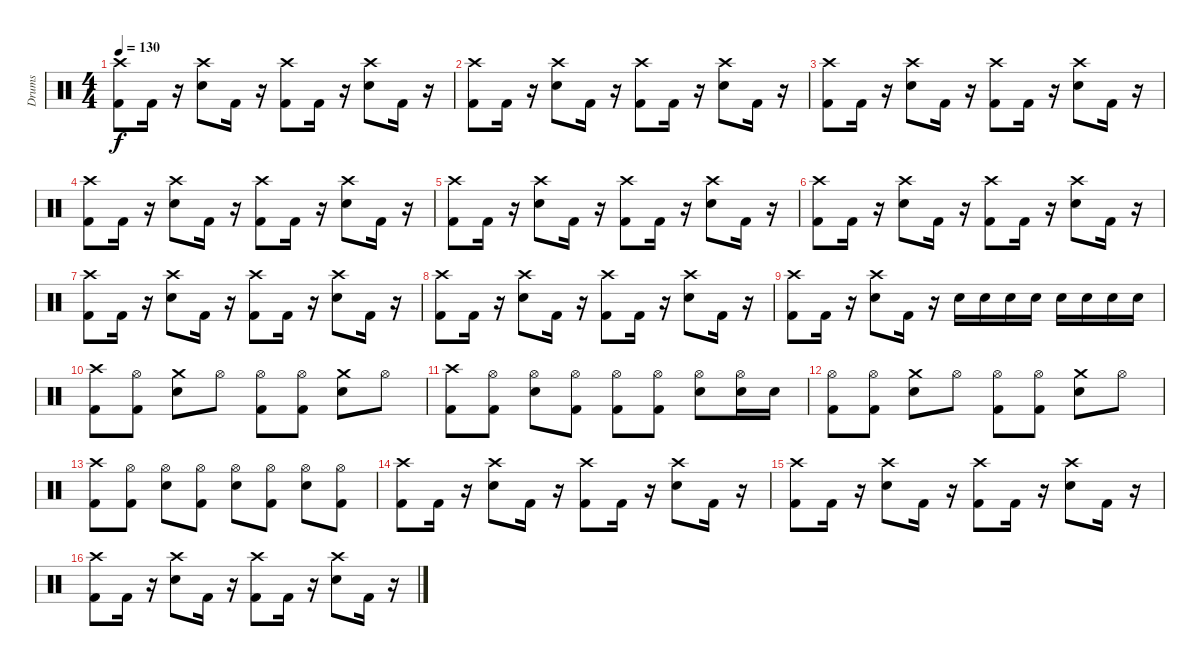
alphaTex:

\track ("Drums" "Drums") {instrument percussion}
\staff {score}
\articulation defaults
\ts (4 4)
\tempo 130
\clef neutral
\ks c
("Kick (hit) 2" "Crash high (hit)").8{dy f} "Kick (hit) 2".16 r.16 ("Electric Snare (hit)" "Crash high (hit)").8 "Kick (hit) 2".16 r.16 ("Kick (hit) 2" "Crash high (hit)").8 "Kick (hit) 2".16 r.16 ("Electric Snare (hit)" "Crash high (hit)").8 "Kick (hit) 2".16 r.16 |
("Kick (hit) 2" "Crash high (hit)").8 "Kick (hit) 2".16 r.16 ("Electric Snare (hit)" "Crash high (hit)").8 "Kick (hit) 2".16 r.16 ("Kick (hit) 2" "Crash high (hit)").8 "Kick (hit) 2".16 r.16 ("Electric Snare (hit)" "Crash high (hit)").8 "Kick (hit) 2".16 r.16 |
("Kick (hit) 2" "Crash high (hit)").8 "Kick (hit) 2".16 r.16 ("Electric Snare (hit)" "Crash high (hit)").8 "Kick (hit) 2".16 r.16 ("Kick (hit) 2" "Crash high (hit)").8 "Kick (hit) 2".16 r.16 ("Electric Snare (hit)" "Crash high (hit)").8 "Kick (hit) 2".16 r.16 |
("Kick (hit) 2" "Crash high (hit)").8 "Kick (hit) 2".16 r.16 ("Electric Snare (hit)" "Crash high (hit)").8 "Kick (hit) 2".16 r.16 ("Kick (hit) 2" "Crash high (hit)").8 "Kick (hit) 2".16 r.16 ("Electric Snare (hit)" "Crash high (hit)").8 "Kick (hit) 2".16 r.16 |
("Kick (hit) 2" "Crash high (hit)").8 "Kick (hit) 2".16 r.16 ("Electric Snare (hit)" "Crash high (hit)").8 "Kick (hit) 2".16 r.16 ("Kick (hit) 2" "Crash high (hit)").8 "Kick (hit) 2".16 r.16 ("Electric Snare (hit)" "Crash high (hit)").8 "Kick (hit) 2".16 r.16 |
("Kick (hit) 2" "Crash high (hit)").8 "Kick (hit) 2".16 r.16 ("Electric Snare (hit)" "Crash high (hit)").8 "Kick (hit) 2".16 r.16 ("Kick (hit) 2" "Crash high (hit)").8 "Kick (hit) 2".16 r.16 ("Electric Snare (hit)" "Crash high (hit)").8 "Kick (hit) 2".16 r.16 |
("Kick (hit) 2" "Crash high (hit)").8 "Kick (hit) 2".16 r.16 ("Electric Snare (hit)" "Crash high (hit)").8 "Kick (hit) 2".16 r.16 ("Kick (hit) 2" "Crash high (hit)").8 "Kick (hit) 2".16 r.16 ("Electric Snare (hit)" "Crash high (hit)").8 "Kick (hit) 2".16 r.16 |
("Kick (hit) 2" "Crash high (hit)").8 "Kick (hit) 2".16 r.16 ("Electric Snare (hit)" "Crash high (hit)").8 "Kick (hit) 2".16 r.16 ("Kick (hit) 2" "Crash high (hit)").8 "Kick (hit) 2".16 r.16 ("Electric Snare (hit)" "Crash high (hit)").8 "Kick (hit) 2".16 r.16 |
("Kick (hit) 2" "Crash high (hit)").8 "Kick (hit) 2".16 r.16 ("Electric Snare (hit)" "Crash high (hit)").8 "Kick (hit) 2".16 r.16 "Electric Snare (hit)".16 "Electric Snare (hit)".16 "Electric Snare (hit)".16 "Electric Snare (hit)".16 "Electric Snare (hit)".16 "Electric Snare (hit)".16 "Electric Snare (hit)".16 "Electric Snare (hit)".16 |
("Kick (hit) 2" "Crash high (hit)").8 ("Kick (hit) 2" "Hi-Hat (open)").8 ("Electric Snare (hit)" "Crash medium (hit)").8 "Hi-Hat (open)".8 ("Kick (hit) 2" "Hi-Hat (open)").8 ("Kick (hit) 2" "Hi-Hat (open)").8 ("Electric Snare (hit)" "Crash medium (hit)").8 "Hi-Hat (open)".8 |
("Kick (hit) 2" "Crash high (hit)").8 ("Kick (hit) 2" "Hi-Hat (open)").8 ("Electric Snare (hit)" "Hi-Hat (open)").8 ("Kick (hit) 2" "Hi-Hat (open)").8 ("Kick (hit) 2" "Hi-Hat (open)").8 ("Kick (hit) 2" "Hi-Hat (open)").8 ("Electric Snare (hit)" "Hi-Hat (open)").8 ("Electric Snare (hit)" "Hi-Hat (open)").16 "Electric Snare (hit)".16 |
("Kick (hit) 2" "Hi-Hat (open)").8 ("Kick (hit) 2" "Hi-Hat (open)").8 ("Electric Snare (hit)" "Crash medium (hit)").8 "Hi-Hat (open)".8 ("Kick (hit) 2" "Hi-Hat (open)").8 ("Kick (hit) 2" "Hi-Hat (open)").8 ("Electric Snare (hit)" "Crash medium (hit)").8 "Hi-Hat (open)".8 |
("Kick (hit) 2" "Crash high (hit)").8 ("Kick (hit) 2" "Hi-Hat (open)").8 ("Electric Snare (hit)" "Hi-Hat (open)").8 ("Kick (hit) 2" "Hi-Hat (open)").8 ("Hi-Hat (open)" "Electric Snare (hit)").8 ("Kick (hit) 2" "Hi-Hat (open)").8 ("Electric Snare (hit)" "Hi-Hat (open)").8 ("Hi-Hat (open)" "Kick (hit) 2").8 |
("Kick (hit) 2" "Crash high (hit)").8 "Kick (hit) 2".16 r.16 ("Electric Snare (hit)" "Crash high (hit)").8 "Kick (hit) 2".16 r.16 ("Kick (hit) 2" "Crash high (hit)").8 "Kick (hit) 2".16 r.16 ("Electric Snare (hit)" "Crash high (hit)").8 "Kick (hit) 2".16 r.16 |
("Kick (hit) 2" "Crash high (hit)").8 "Kick (hit) 2".16 r.16 ("Electric Snare (hit)" "Crash high (hit)").8 "Kick (hit) 2".16 r.16 ("Kick (hit) 2" "Crash high (hit)").8 "Kick (hit) 2".16 r.16 ("Electric Snare (hit)" "Crash high (hit)").8 "Kick (hit) 2".16 r.16 |
("Kick (hit) 2" "Crash high (hit)").8 "Kick (hit) 2".16 r.16 ("Electric Snare (hit)" "Crash high (hit)").8 "Kick (hit) 2".16 r.16 ("Kick (hit) 2" "Crash high (hit)").8 "Kick (hit) 2".16 r.16 ("Electric Snare (hit)" "Crash high (hit)").8 "Kick (hit) 2".16 r.16
